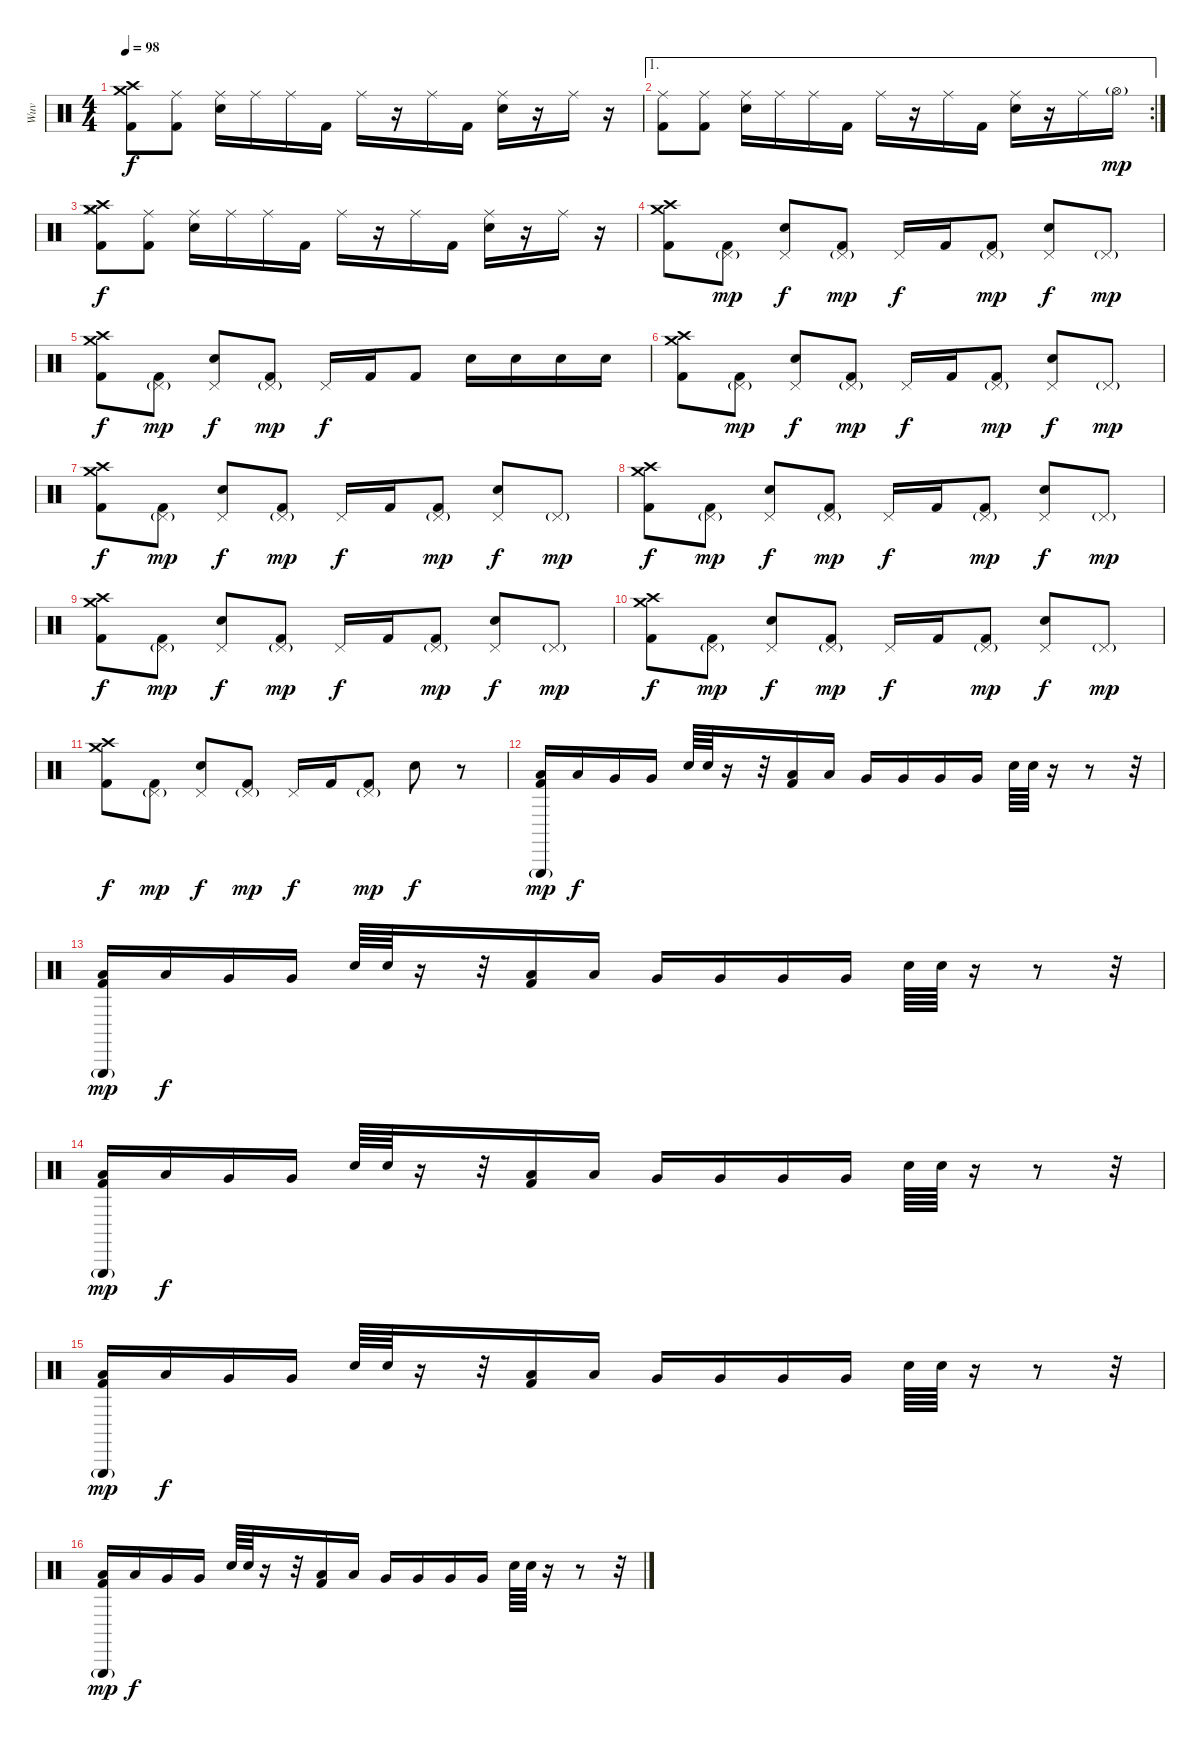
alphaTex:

\track ("Wuv" "Wuv") {instrument percussion}
\staff {score}
\articulation defaults
\ts (4 4)
\tempo 98
\clef neutral
\ks c
("Crash high (hit)" "Crash medium (hit)" "Kick (hit) 2").8{dy f} ("Ride (middle)" "Kick (hit) 2").8 ("Ride (middle)" "Electric Snare (hit)").16 "Ride (middle)".16 "Ride (middle)".16 "Kick (hit) 2".16 "Ride (middle)".16 r.16 "Ride (middle)".16 "Kick (hit) 2".16 ("Ride (middle)" "Electric Snare (hit)").16 r.16 "Ride (middle)".16 r.16 |
\ae 1
\rc 2
("Ride (middle)" "Kick (hit) 2").8 ("Ride (middle)" "Kick (hit) 2").8 ("Ride (middle)" "Electric Snare (hit)").16 "Ride (middle)".16 "Ride (middle)".16 "Kick (hit) 2".16 "Ride (middle)".16 r.16 "Ride (middle)".16 "Kick (hit) 2".16 ("Ride (middle)" "Electric Snare (hit)").16 r.16 "Ride (middle)".16 "Hi-Hat (open)"{g}.16{dy mp} |
("Crash high (hit)" "Crash medium (hit)" "Hi-Hat (closed)" "Kick (hit) 2").8{dy f} ("Ride (middle)" "Kick (hit) 2").8 ("Ride (middle)" "Electric Snare (hit)").16 "Ride (middle)".16 "Ride (middle)".16 "Kick (hit) 2".16 "Ride (middle)".16 r.16 "Ride (middle)".16 "Kick (hit) 2".16 ("Ride (middle)" "Electric Snare (hit)").16 r.16 "Ride (middle)".16 r.16 |
("Crash high (hit)" "Crash medium (hit)" "Kick (hit) 2").8 ("Pedal Hi-Hat (hit)"{g} "Kick (hit) 2").8{dy mp} ("Pedal Hi-Hat (hit)" "Electric Snare (hit)").8{dy f} ("Pedal Hi-Hat (hit)"{g} "Kick (hit) 2").8{dy mp} "Pedal Hi-Hat (hit)".16{dy f} "Kick (hit) 2".16 ("Pedal Hi-Hat (hit)"{g} "Kick (hit) 2").8{dy mp} ("Pedal Hi-Hat (hit)" "Electric Snare (hit)").8{dy f} "Pedal Hi-Hat (hit)"{g}.8{dy mp} |
("Crash high (hit)" "Crash medium (hit)" "Kick (hit) 2").8{dy f} ("Pedal Hi-Hat (hit)"{g} "Kick (hit) 2").8{dy mp} ("Pedal Hi-Hat (hit)" "Electric Snare (hit)").8{dy f} ("Pedal Hi-Hat (hit)"{g} "Kick (hit) 2").8{dy mp} "Pedal Hi-Hat (hit)".16{dy f} "Kick (hit) 2".16 "Kick (hit) 2".8 "Electric Snare (hit)".16 "Electric Snare (hit)".16 "Electric Snare (hit)".16 "Electric Snare (hit)".16 |
("Crash high (hit)" "Crash medium (hit)" "Kick (hit) 2").8 ("Pedal Hi-Hat (hit)"{g} "Kick (hit) 2").8{dy mp} ("Pedal Hi-Hat (hit)" "Electric Snare (hit)").8{dy f} ("Pedal Hi-Hat (hit)"{g} "Kick (hit) 2").8{dy mp} "Pedal Hi-Hat (hit)".16{dy f} "Kick (hit) 2".16 ("Pedal Hi-Hat (hit)"{g} "Kick (hit) 2").8{dy mp} ("Pedal Hi-Hat (hit)" "Electric Snare (hit)").8{dy f} "Pedal Hi-Hat (hit)"{g}.8{dy mp} |
("Crash high (hit)" "Crash medium (hit)" "Kick (hit) 2").8{dy f} ("Pedal Hi-Hat (hit)"{g} "Kick (hit) 2").8{dy mp} ("Pedal Hi-Hat (hit)" "Electric Snare (hit)").8{dy f} ("Pedal Hi-Hat (hit)"{g} "Kick (hit) 2").8{dy mp} "Pedal Hi-Hat (hit)".16{dy f} "Kick (hit) 2".16 ("Pedal Hi-Hat (hit)"{g} "Kick (hit) 2").8{dy mp} ("Pedal Hi-Hat (hit)" "Electric Snare (hit)").8{dy f} "Pedal Hi-Hat (hit)"{g}.8{dy mp} |
("Crash high (hit)" "Crash medium (hit)" "Kick (hit) 2").8{dy f} ("Pedal Hi-Hat (hit)"{g} "Kick (hit) 2").8{dy mp} ("Pedal Hi-Hat (hit)" "Electric Snare (hit)").8{dy f} ("Pedal Hi-Hat (hit)"{g} "Kick (hit) 2").8{dy mp} "Pedal Hi-Hat (hit)".16{dy f} "Kick (hit) 2".16 ("Pedal Hi-Hat (hit)"{g} "Kick (hit) 2").8{dy mp} ("Pedal Hi-Hat (hit)" "Electric Snare (hit)").8{dy f} "Pedal Hi-Hat (hit)"{g}.8{dy mp} |
("Crash high (hit)" "Crash medium (hit)" "Kick (hit) 2").8{dy f} ("Pedal Hi-Hat (hit)"{g} "Kick (hit) 2").8{dy mp} ("Pedal Hi-Hat (hit)" "Electric Snare (hit)").8{dy f} ("Pedal Hi-Hat (hit)"{g} "Kick (hit) 2").8{dy mp} "Pedal Hi-Hat (hit)".16{dy f} "Kick (hit) 2".16 ("Pedal Hi-Hat (hit)"{g} "Kick (hit) 2").8{dy mp} ("Pedal Hi-Hat (hit)" "Electric Snare (hit)").8{dy f} "Pedal Hi-Hat (hit)"{g}.8{dy mp} |
("Crash high (hit)" "Crash medium (hit)" "Kick (hit) 2").8{dy f} ("Pedal Hi-Hat (hit)"{g} "Kick (hit) 2").8{dy mp} ("Pedal Hi-Hat (hit)" "Electric Snare (hit)").8{dy f} ("Pedal Hi-Hat (hit)"{g} "Kick (hit) 2").8{dy mp} "Pedal Hi-Hat (hit)".16{dy f} "Kick (hit) 2".16 ("Pedal Hi-Hat (hit)"{g} "Kick (hit) 2").8{dy mp} ("Pedal Hi-Hat (hit)" "Electric Snare (hit)").8{dy f} "Pedal Hi-Hat (hit)"{g}.8{dy mp} |
("Crash high (hit)" "Crash medium (hit)" "Kick (hit) 2").8{dy f} ("Pedal Hi-Hat (hit)"{g} "Kick (hit) 2").8{dy mp} ("Pedal Hi-Hat (hit)" "Electric Snare (hit)").8{dy f} ("Pedal Hi-Hat (hit)"{g} "Kick (hit) 2").8{dy mp} "Pedal Hi-Hat (hit)".16{dy f} "Kick (hit) 2".16 ("Pedal Hi-Hat (hit)"{g} "Kick (hit) 2").8{dy mp} "Electric Snare (hit)".8{dy f} r.8 |
("Low Tom (hit)" "Triangle (hit)"{g} "Kick (hit) 2").16{dy mp} "Low Tom (hit)".16{dy f} "Very Low Tom (hit)".16 "Very Low Tom (hit)".16 "Electric Snare (hit)".64 "Electric Snare (hit)".64 r.16 r.32 ("Low Tom (hit)" "Kick (hit) 2").16 "Low Tom (hit)".16 "Very Low Tom (hit)".16 "Very Low Tom (hit)".16 "Very Low Tom (hit)".16 "Very Low Tom (hit)".16 "Electric Snare (hit)".64 "Electric Snare (hit)".64 r.16 r.8 r.32 |
("Low Tom (hit)" "Triangle (hit)"{g} "Kick (hit) 2").16{dy mp} "Low Tom (hit)".16{dy f} "Very Low Tom (hit)".16 "Very Low Tom (hit)".16 "Electric Snare (hit)".64 "Electric Snare (hit)".64 r.16 r.32 ("Low Tom (hit)" "Kick (hit) 2").16 "Low Tom (hit)".16 "Very Low Tom (hit)".16 "Very Low Tom (hit)".16 "Very Low Tom (hit)".16 "Very Low Tom (hit)".16 "Electric Snare (hit)".64 "Electric Snare (hit)".64 r.16 r.8 r.32 |
("Low Tom (hit)" "Triangle (hit)"{g} "Kick (hit) 2").16{dy mp} "Low Tom (hit)".16{dy f} "Very Low Tom (hit)".16 "Very Low Tom (hit)".16 "Electric Snare (hit)".64 "Electric Snare (hit)".64 r.16 r.32 ("Low Tom (hit)" "Kick (hit) 2").16 "Low Tom (hit)".16 "Very Low Tom (hit)".16 "Very Low Tom (hit)".16 "Very Low Tom (hit)".16 "Very Low Tom (hit)".16 "Electric Snare (hit)".64 "Electric Snare (hit)".64 r.16 r.8 r.32 |
("Low Tom (hit)" "Triangle (hit)"{g} "Kick (hit) 2").16{dy mp} "Low Tom (hit)".16{dy f} "Very Low Tom (hit)".16 "Very Low Tom (hit)".16 "Electric Snare (hit)".64 "Electric Snare (hit)".64 r.16 r.32 ("Low Tom (hit)" "Kick (hit) 2").16 "Low Tom (hit)".16 "Very Low Tom (hit)".16 "Very Low Tom (hit)".16 "Very Low Tom (hit)".16 "Very Low Tom (hit)".16 "Electric Snare (hit)".64 "Electric Snare (hit)".64 r.16 r.8 r.32 |
("Low Tom (hit)" "Triangle (hit)"{g} "Kick (hit) 2").16{dy mp} "Low Tom (hit)".16{dy f} "Very Low Tom (hit)".16 "Very Low Tom (hit)".16 "Electric Snare (hit)".64 "Electric Snare (hit)".64 r.16 r.32 ("Low Tom (hit)" "Kick (hit) 2").16 "Low Tom (hit)".16 "Very Low Tom (hit)".16 "Very Low Tom (hit)".16 "Very Low Tom (hit)".16 "Very Low Tom (hit)".16 "Electric Snare (hit)".64 "Electric Snare (hit)".64 r.16 r.8 r.32
